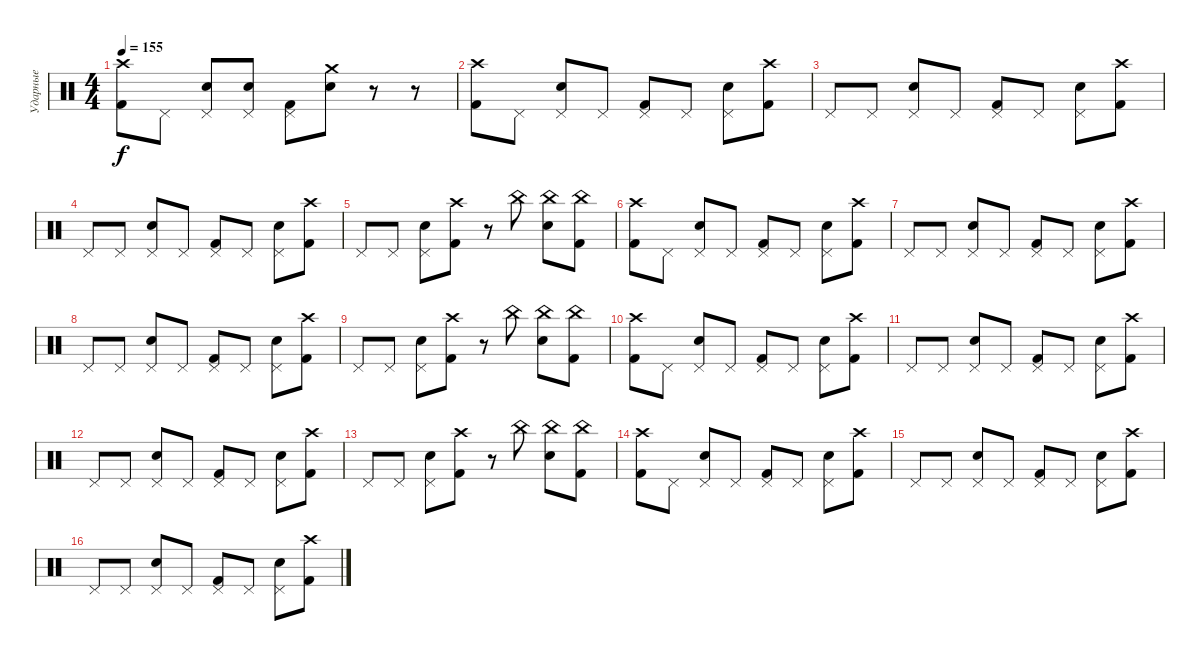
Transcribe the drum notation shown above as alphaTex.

\track ("Ударные" "Ударные") {instrument percussion}
\staff {score}
\articulation defaults
\ts (4 4)
\tempo 155
\clef neutral
\ks c
("Crash high (hit)" "Kick (hit) 2").8{dy f} "Pedal Hi-Hat (hit)".8 ("Pedal Hi-Hat (hit)" "Snare (hit) 2").8 ("Pedal Hi-Hat (hit)" "Snare (hit) 2").8 ("Pedal Hi-Hat (hit)" "Kick (hit) 2").8 ("Crash medium (hit)" "Snare (hit) 2").8 r.8 r.8 |
("Crash high (hit)" "Kick (hit) 2").8 "Pedal Hi-Hat (hit)".8 ("Pedal Hi-Hat (hit)" "Snare (hit) 2").8 "Pedal Hi-Hat (hit)".8 ("Pedal Hi-Hat (hit)" "Kick (hit) 2").8 "Pedal Hi-Hat (hit)".8 ("Pedal Hi-Hat (hit)" "Snare (hit) 2").8 ("Crash high (hit)" "Kick (hit) 2").8 |
"Pedal Hi-Hat (hit)".8 "Pedal Hi-Hat (hit)".8 ("Pedal Hi-Hat (hit)" "Snare (hit) 2").8 "Pedal Hi-Hat (hit)".8 ("Pedal Hi-Hat (hit)" "Kick (hit) 2").8 "Pedal Hi-Hat (hit)".8 ("Pedal Hi-Hat (hit)" "Snare (hit) 2").8 ("Crash high (hit)" "Kick (hit) 2").8 |
"Pedal Hi-Hat (hit)".8 "Pedal Hi-Hat (hit)".8 ("Pedal Hi-Hat (hit)" "Snare (hit) 2").8 "Pedal Hi-Hat (hit)".8 ("Pedal Hi-Hat (hit)" "Kick (hit) 2").8 "Pedal Hi-Hat (hit)".8 ("Pedal Hi-Hat (hit)" "Snare (hit) 2").8 ("Crash high (hit)" "Kick (hit) 2").8 |
"Pedal Hi-Hat (hit)".8 "Pedal Hi-Hat (hit)".8 ("Pedal Hi-Hat (hit)" "Snare (hit) 2").8 ("Crash high (hit)" "Kick (hit) 2").8 r.8 "China (hit)".8 ("China (hit)" "Snare (hit) 2").8 ("China (hit)" "Kick (hit) 2").8 |
("Crash high (hit)" "Kick (hit) 2").8 "Pedal Hi-Hat (hit)".8 ("Pedal Hi-Hat (hit)" "Snare (hit) 2").8 "Pedal Hi-Hat (hit)".8 ("Pedal Hi-Hat (hit)" "Kick (hit) 2").8 "Pedal Hi-Hat (hit)".8 ("Pedal Hi-Hat (hit)" "Snare (hit) 2").8 ("Crash high (hit)" "Kick (hit) 2").8 |
"Pedal Hi-Hat (hit)".8 "Pedal Hi-Hat (hit)".8 ("Pedal Hi-Hat (hit)" "Snare (hit) 2").8 "Pedal Hi-Hat (hit)".8 ("Pedal Hi-Hat (hit)" "Kick (hit) 2").8 "Pedal Hi-Hat (hit)".8 ("Pedal Hi-Hat (hit)" "Snare (hit) 2").8 ("Crash high (hit)" "Kick (hit) 2").8 |
"Pedal Hi-Hat (hit)".8 "Pedal Hi-Hat (hit)".8 ("Pedal Hi-Hat (hit)" "Snare (hit) 2").8 "Pedal Hi-Hat (hit)".8 ("Pedal Hi-Hat (hit)" "Kick (hit) 2").8 "Pedal Hi-Hat (hit)".8 ("Pedal Hi-Hat (hit)" "Snare (hit) 2").8 ("Crash high (hit)" "Kick (hit) 2").8 |
"Pedal Hi-Hat (hit)".8 "Pedal Hi-Hat (hit)".8 ("Pedal Hi-Hat (hit)" "Snare (hit) 2").8 ("Crash high (hit)" "Kick (hit) 2").8 r.8 "China (hit)".8 ("China (hit)" "Snare (hit) 2").8 ("China (hit)" "Kick (hit) 2").8 |
("Crash high (hit)" "Kick (hit) 2").8 "Pedal Hi-Hat (hit)".8 ("Pedal Hi-Hat (hit)" "Snare (hit) 2").8 "Pedal Hi-Hat (hit)".8 ("Pedal Hi-Hat (hit)" "Kick (hit) 2").8 "Pedal Hi-Hat (hit)".8 ("Pedal Hi-Hat (hit)" "Snare (hit) 2").8 ("Crash high (hit)" "Kick (hit) 2").8 |
"Pedal Hi-Hat (hit)".8 "Pedal Hi-Hat (hit)".8 ("Pedal Hi-Hat (hit)" "Snare (hit) 2").8 "Pedal Hi-Hat (hit)".8 ("Pedal Hi-Hat (hit)" "Kick (hit) 2").8 "Pedal Hi-Hat (hit)".8 ("Pedal Hi-Hat (hit)" "Snare (hit) 2").8 ("Crash high (hit)" "Kick (hit) 2").8 |
"Pedal Hi-Hat (hit)".8 "Pedal Hi-Hat (hit)".8 ("Pedal Hi-Hat (hit)" "Snare (hit) 2").8 "Pedal Hi-Hat (hit)".8 ("Pedal Hi-Hat (hit)" "Kick (hit) 2").8 "Pedal Hi-Hat (hit)".8 ("Pedal Hi-Hat (hit)" "Snare (hit) 2").8 ("Crash high (hit)" "Kick (hit) 2").8 |
"Pedal Hi-Hat (hit)".8 "Pedal Hi-Hat (hit)".8 ("Pedal Hi-Hat (hit)" "Snare (hit) 2").8 ("Crash high (hit)" "Kick (hit) 2").8 r.8 "China (hit)".8 ("China (hit)" "Snare (hit) 2").8 ("China (hit)" "Kick (hit) 2").8 |
("Crash high (hit)" "Kick (hit) 2").8 "Pedal Hi-Hat (hit)".8 ("Pedal Hi-Hat (hit)" "Snare (hit) 2").8 "Pedal Hi-Hat (hit)".8 ("Pedal Hi-Hat (hit)" "Kick (hit) 2").8 "Pedal Hi-Hat (hit)".8 ("Pedal Hi-Hat (hit)" "Snare (hit) 2").8 ("Crash high (hit)" "Kick (hit) 2").8 |
"Pedal Hi-Hat (hit)".8 "Pedal Hi-Hat (hit)".8 ("Pedal Hi-Hat (hit)" "Snare (hit) 2").8 "Pedal Hi-Hat (hit)".8 ("Pedal Hi-Hat (hit)" "Kick (hit) 2").8 "Pedal Hi-Hat (hit)".8 ("Pedal Hi-Hat (hit)" "Snare (hit) 2").8 ("Crash high (hit)" "Kick (hit) 2").8 |
"Pedal Hi-Hat (hit)".8 "Pedal Hi-Hat (hit)".8 ("Pedal Hi-Hat (hit)" "Snare (hit) 2").8 "Pedal Hi-Hat (hit)".8 ("Pedal Hi-Hat (hit)" "Kick (hit) 2").8 "Pedal Hi-Hat (hit)".8 ("Pedal Hi-Hat (hit)" "Snare (hit) 2").8 ("Crash high (hit)" "Kick (hit) 2").8
